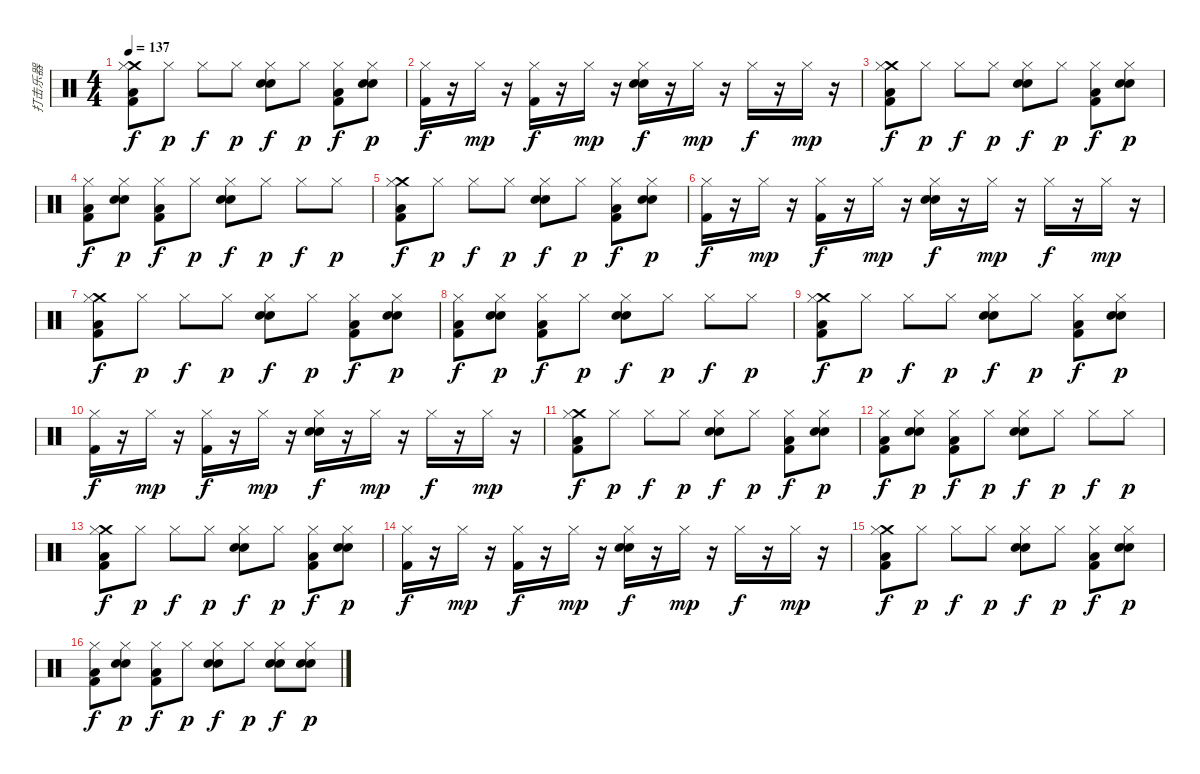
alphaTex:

\track ("打击乐器" "打击乐器") {instrument percussion}
\staff {score}
\articulation defaults
\ts (4 4)
\tempo 137
\clef neutral
\ks c
("Low Floor Tom (hit)" "Kick (hit) 2" "Crash medium (hit)" "Hi-Hat (closed)").8{dy f} "Hi-Hat (closed)".8{dy p} "Hi-Hat (closed)".8{dy f} "Hi-Hat (closed)".8{dy p} ("Hand Clap (hit)" "Electric Snare (hit)" "Hi-Hat (closed)").8{dy f} "Hi-Hat (closed)".8{dy p} ("Low Floor Tom (hit)" "Kick (hit) 2" "Hi-Hat (closed)").8{dy f} ("Hand Clap (hit)" "Electric Snare (hit)" "Hi-Hat (closed)").8{dy p} |
("Kick (hit) 2" "Hi-Hat (closed)").16{dy f} r.16 "Hi-Hat (closed)".16{dy mp} r.16 ("Kick (hit) 2" "Hi-Hat (closed)").16{dy f} r.16 "Hi-Hat (closed)".16{dy mp} r.16 ("Hand Clap (hit)" "Electric Snare (hit)" "Hi-Hat (closed)").16{dy f} r.16 "Hi-Hat (closed)".16{dy mp} r.16 "Hi-Hat (closed)".16{dy f} r.16 "Hi-Hat (closed)".16{dy mp} r.16 |
("Low Floor Tom (hit)" "Kick (hit) 2" "Crash medium (hit)" "Hi-Hat (closed)").8{dy f} "Hi-Hat (closed)".8{dy p} "Hi-Hat (closed)".8{dy f} "Hi-Hat (closed)".8{dy p} ("Hand Clap (hit)" "Electric Snare (hit)" "Hi-Hat (closed)").8{dy f} "Hi-Hat (closed)".8{dy p} ("Low Floor Tom (hit)" "Kick (hit) 2" "Hi-Hat (closed)").8{dy f} ("Hand Clap (hit)" "Electric Snare (hit)" "Hi-Hat (closed)").8{dy p} |
("Low Floor Tom (hit)" "Kick (hit) 2" "Hi-Hat (closed)").8{dy f} ("Hand Clap (hit)" "Electric Snare (hit)" "Hi-Hat (closed)").8{dy p} ("Low Floor Tom (hit)" "Kick (hit) 2" "Hi-Hat (closed)").8{dy f} "Hi-Hat (closed)".8{dy p} ("Hand Clap (hit)" "Electric Snare (hit)" "Hi-Hat (closed)").8{dy f} "Hi-Hat (closed)".8{dy p} "Hi-Hat (closed)".8{dy f} "Hi-Hat (closed)".8{dy p} |
("Low Floor Tom (hit)" "Kick (hit) 2" "Crash medium (hit)" "Hi-Hat (closed)").8{dy f} "Hi-Hat (closed)".8{dy p} "Hi-Hat (closed)".8{dy f} "Hi-Hat (closed)".8{dy p} ("Hand Clap (hit)" "Electric Snare (hit)" "Hi-Hat (closed)").8{dy f} "Hi-Hat (closed)".8{dy p} ("Low Floor Tom (hit)" "Kick (hit) 2" "Hi-Hat (closed)").8{dy f} ("Hand Clap (hit)" "Electric Snare (hit)" "Hi-Hat (closed)").8{dy p} |
("Kick (hit) 2" "Hi-Hat (closed)").16{dy f} r.16 "Hi-Hat (closed)".16{dy mp} r.16 ("Kick (hit) 2" "Hi-Hat (closed)").16{dy f} r.16 "Hi-Hat (closed)".16{dy mp} r.16 ("Hand Clap (hit)" "Electric Snare (hit)" "Hi-Hat (closed)").16{dy f} r.16 "Hi-Hat (closed)".16{dy mp} r.16 "Hi-Hat (closed)".16{dy f} r.16 "Hi-Hat (closed)".16{dy mp} r.16 |
("Low Floor Tom (hit)" "Kick (hit) 2" "Crash medium (hit)" "Hi-Hat (closed)").8{dy f} "Hi-Hat (closed)".8{dy p} "Hi-Hat (closed)".8{dy f} "Hi-Hat (closed)".8{dy p} ("Hand Clap (hit)" "Electric Snare (hit)" "Hi-Hat (closed)").8{dy f} "Hi-Hat (closed)".8{dy p} ("Low Floor Tom (hit)" "Kick (hit) 2" "Hi-Hat (closed)").8{dy f} ("Hand Clap (hit)" "Electric Snare (hit)" "Hi-Hat (closed)").8{dy p} |
("Low Floor Tom (hit)" "Kick (hit) 2" "Hi-Hat (closed)").8{dy f} ("Hand Clap (hit)" "Electric Snare (hit)" "Hi-Hat (closed)").8{dy p} ("Low Floor Tom (hit)" "Kick (hit) 2" "Hi-Hat (closed)").8{dy f} "Hi-Hat (closed)".8{dy p} ("Hand Clap (hit)" "Electric Snare (hit)" "Hi-Hat (closed)").8{dy f} "Hi-Hat (closed)".8{dy p} "Hi-Hat (closed)".8{dy f} "Hi-Hat (closed)".8{dy p} |
("Low Floor Tom (hit)" "Kick (hit) 2" "Crash medium (hit)" "Hi-Hat (closed)").8{dy f} "Hi-Hat (closed)".8{dy p} "Hi-Hat (closed)".8{dy f} "Hi-Hat (closed)".8{dy p} ("Hand Clap (hit)" "Electric Snare (hit)" "Hi-Hat (closed)").8{dy f} "Hi-Hat (closed)".8{dy p} ("Low Floor Tom (hit)" "Kick (hit) 2" "Hi-Hat (closed)").8{dy f} ("Hand Clap (hit)" "Electric Snare (hit)" "Hi-Hat (closed)").8{dy p} |
("Kick (hit) 2" "Hi-Hat (closed)").16{dy f} r.16 "Hi-Hat (closed)".16{dy mp} r.16 ("Kick (hit) 2" "Hi-Hat (closed)").16{dy f} r.16 "Hi-Hat (closed)".16{dy mp} r.16 ("Hand Clap (hit)" "Electric Snare (hit)" "Hi-Hat (closed)").16{dy f} r.16 "Hi-Hat (closed)".16{dy mp} r.16 "Hi-Hat (closed)".16{dy f} r.16 "Hi-Hat (closed)".16{dy mp} r.16 |
("Low Floor Tom (hit)" "Kick (hit) 2" "Crash medium (hit)" "Hi-Hat (closed)").8{dy f} "Hi-Hat (closed)".8{dy p} "Hi-Hat (closed)".8{dy f} "Hi-Hat (closed)".8{dy p} ("Hand Clap (hit)" "Electric Snare (hit)" "Hi-Hat (closed)").8{dy f} "Hi-Hat (closed)".8{dy p} ("Low Floor Tom (hit)" "Kick (hit) 2" "Hi-Hat (closed)").8{dy f} ("Hand Clap (hit)" "Electric Snare (hit)" "Hi-Hat (closed)").8{dy p} |
("Low Floor Tom (hit)" "Kick (hit) 2" "Hi-Hat (closed)").8{dy f} ("Hand Clap (hit)" "Electric Snare (hit)" "Hi-Hat (closed)").8{dy p} ("Low Floor Tom (hit)" "Kick (hit) 2" "Hi-Hat (closed)").8{dy f} "Hi-Hat (closed)".8{dy p} ("Hand Clap (hit)" "Electric Snare (hit)" "Hi-Hat (closed)").8{dy f} "Hi-Hat (closed)".8{dy p} "Hi-Hat (closed)".8{dy f} "Hi-Hat (closed)".8{dy p} |
("Low Floor Tom (hit)" "Kick (hit) 2" "Crash medium (hit)" "Hi-Hat (closed)").8{dy f} "Hi-Hat (closed)".8{dy p} "Hi-Hat (closed)".8{dy f} "Hi-Hat (closed)".8{dy p} ("Hand Clap (hit)" "Electric Snare (hit)" "Hi-Hat (closed)").8{dy f} "Hi-Hat (closed)".8{dy p} ("Low Floor Tom (hit)" "Kick (hit) 2" "Hi-Hat (closed)").8{dy f} ("Hand Clap (hit)" "Electric Snare (hit)" "Hi-Hat (closed)").8{dy p} |
("Kick (hit) 2" "Hi-Hat (closed)").16{dy f} r.16 "Hi-Hat (closed)".16{dy mp} r.16 ("Kick (hit) 2" "Hi-Hat (closed)").16{dy f} r.16 "Hi-Hat (closed)".16{dy mp} r.16 ("Hand Clap (hit)" "Electric Snare (hit)" "Hi-Hat (closed)").16{dy f} r.16 "Hi-Hat (closed)".16{dy mp} r.16 "Hi-Hat (closed)".16{dy f} r.16 "Hi-Hat (closed)".16{dy mp} r.16 |
("Low Floor Tom (hit)" "Kick (hit) 2" "Crash medium (hit)" "Hi-Hat (closed)").8{dy f} "Hi-Hat (closed)".8{dy p} "Hi-Hat (closed)".8{dy f} "Hi-Hat (closed)".8{dy p} ("Hand Clap (hit)" "Electric Snare (hit)" "Hi-Hat (closed)").8{dy f} "Hi-Hat (closed)".8{dy p} ("Low Floor Tom (hit)" "Kick (hit) 2" "Hi-Hat (closed)").8{dy f} ("Hand Clap (hit)" "Electric Snare (hit)" "Hi-Hat (closed)").8{dy p} |
("Low Floor Tom (hit)" "Kick (hit) 2" "Hi-Hat (closed)").8{dy f} ("Hand Clap (hit)" "Electric Snare (hit)" "Hi-Hat (closed)").8{dy p} ("Low Floor Tom (hit)" "Kick (hit) 2" "Hi-Hat (closed)").8{dy f} "Hi-Hat (closed)".8{dy p} ("Hand Clap (hit)" "Electric Snare (hit)" "Hi-Hat (closed)").8{dy f} "Hi-Hat (closed)".8{dy p} ("Hand Clap (hit)" "Electric Snare (hit)" "Hi-Hat (closed)").8{dy f} ("Hand Clap (hit)" "Electric Snare (hit)" "Hi-Hat (closed)").8{dy p}
